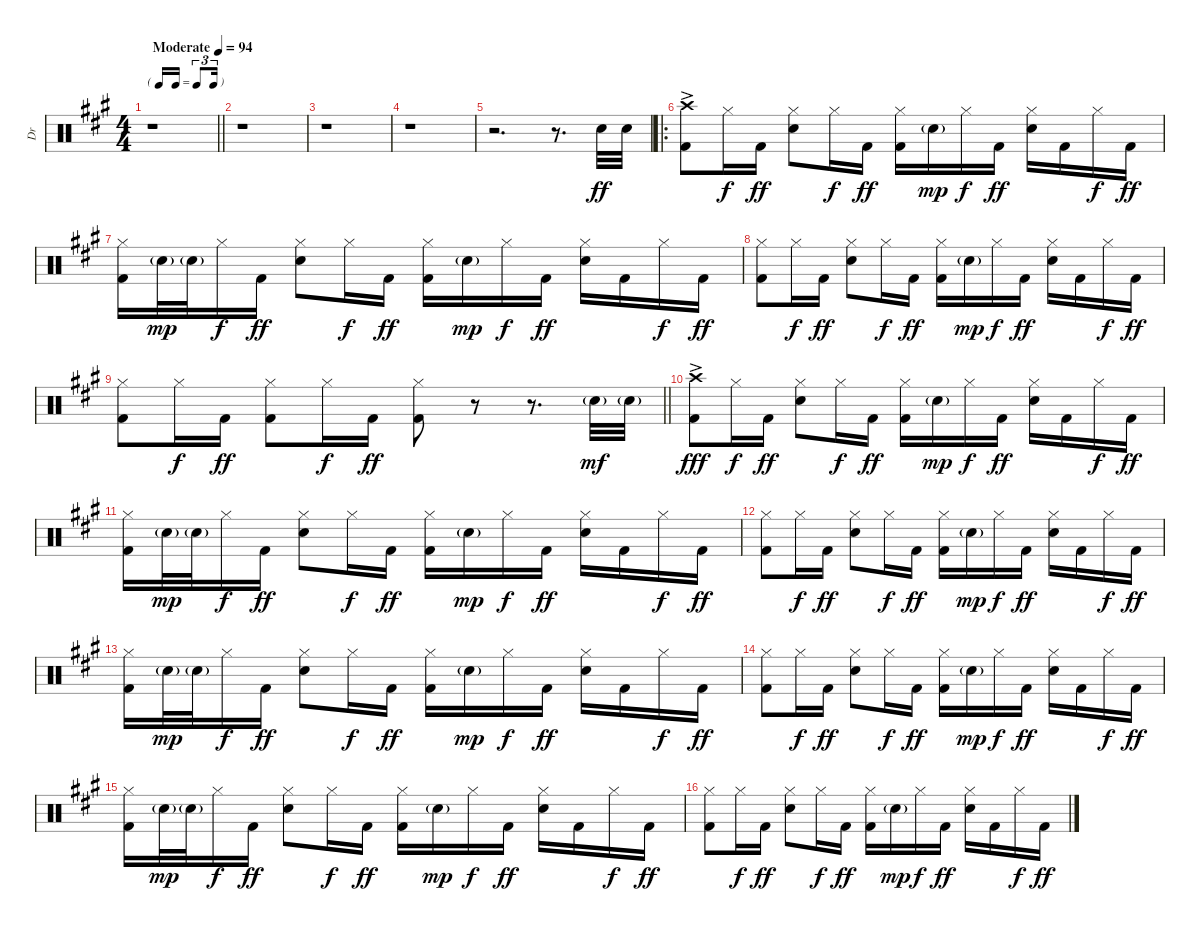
\track ("Dr" "Dr") {instrument percussion}
\staff {score}
\articulation defaults
\ts (4 4)
\tf triplet16th
\tempo (94 "Moderate")
\clef neutral
\barLineRight lightlight
\ks a
r.1{dy ff volume 16} |
r.1 |
r.1 |
r.1 |
r.2{d} r.8{d} "Electric Snare (hit)".32 "Electric Snare (hit)".32 |
\ro
("Crash high (hit)"{ac} "Kick (hit) 2"{ac}).8 "Hi-Hat (closed)".16{dy f} "Kick (hit) 2".16{dy ff} ("Hi-Hat (closed)" "Electric Snare (hit)").8 "Hi-Hat (closed)".16{dy f} "Kick (hit) 2".16{dy ff} ("Hi-Hat (closed)" "Kick (hit) 2").16 "Electric Snare (hit)"{g}.16{dy mp} "Hi-Hat (closed)".16{dy f} "Kick (hit) 2".16{dy ff} ("Hi-Hat (closed)" "Electric Snare (hit)").16 "Kick (hit) 2".16 "Hi-Hat (closed)".16{dy f} "Kick (hit) 2".16{dy ff} |
("Hi-Hat (closed)" "Kick (hit) 2").16 "Electric Snare (hit)"{g}.32{dy mp} "Electric Snare (hit)"{g}.32 "Hi-Hat (closed)".16{dy f} "Kick (hit) 2".16{dy ff} ("Hi-Hat (closed)" "Electric Snare (hit)").8 "Hi-Hat (closed)".16{dy f} "Kick (hit) 2".16{dy ff} ("Hi-Hat (closed)" "Kick (hit) 2").16 "Electric Snare (hit)"{g}.16{dy mp} "Hi-Hat (closed)".16{dy f} "Kick (hit) 2".16{dy ff} ("Hi-Hat (closed)" "Electric Snare (hit)").16 "Kick (hit) 2".16 "Hi-Hat (closed)".16{dy f} "Kick (hit) 2".16{dy ff} |
("Hi-Hat (closed)" "Kick (hit) 2").8 "Hi-Hat (closed)".16{dy f} "Kick (hit) 2".16{dy ff} ("Hi-Hat (closed)" "Electric Snare (hit)").8 "Hi-Hat (closed)".16{dy f} "Kick (hit) 2".16{dy ff} ("Hi-Hat (closed)" "Kick (hit) 2").16 "Electric Snare (hit)"{g}.16{dy mp} "Hi-Hat (closed)".16{dy f} "Kick (hit) 2".16{dy ff} ("Hi-Hat (closed)" "Electric Snare (hit)").16 "Kick (hit) 2".16 "Hi-Hat (closed)".16{dy f} "Kick (hit) 2".16{dy ff} |
\barLineRight lightlight
("Hi-Hat (closed)" "Kick (hit) 2").8 "Hi-Hat (closed)".16{dy f} "Kick (hit) 2".16{dy ff} ("Hi-Hat (closed)" "Kick (hit) 2").8 "Hi-Hat (closed)".16{dy f} "Kick (hit) 2".16{dy ff} ("Hi-Hat (closed)" "Kick (hit) 2").8 r.8 r.8{d} "Electric Snare (hit)"{g}.32{dy mf} "Electric Snare (hit)"{g}.32 |
("Crash high (hit)"{ac} "Kick (hit) 2"{ac}).8{dy fff} "Hi-Hat (closed)".16{dy f} "Kick (hit) 2".16{dy ff} ("Hi-Hat (closed)" "Electric Snare (hit)").8 "Hi-Hat (closed)".16{dy f} "Kick (hit) 2".16{dy ff} ("Hi-Hat (closed)" "Kick (hit) 2").16 "Electric Snare (hit)"{g}.16{dy mp} "Hi-Hat (closed)".16{dy f} "Kick (hit) 2".16{dy ff} ("Hi-Hat (closed)" "Electric Snare (hit)").16 "Kick (hit) 2".16 "Hi-Hat (closed)".16{dy f} "Kick (hit) 2".16{dy ff} |
("Hi-Hat (closed)" "Kick (hit) 2").16 "Electric Snare (hit)"{g}.32{dy mp} "Electric Snare (hit)"{g}.32 "Hi-Hat (closed)".16{dy f} "Kick (hit) 2".16{dy ff} ("Hi-Hat (closed)" "Electric Snare (hit)").8 "Hi-Hat (closed)".16{dy f} "Kick (hit) 2".16{dy ff} ("Hi-Hat (closed)" "Kick (hit) 2").16 "Electric Snare (hit)"{g}.16{dy mp} "Hi-Hat (closed)".16{dy f} "Kick (hit) 2".16{dy ff} ("Hi-Hat (closed)" "Electric Snare (hit)").16 "Kick (hit) 2".16 "Hi-Hat (closed)".16{dy f} "Kick (hit) 2".16{dy ff} |
("Hi-Hat (closed)" "Kick (hit) 2").8 "Hi-Hat (closed)".16{dy f} "Kick (hit) 2".16{dy ff} ("Hi-Hat (closed)" "Electric Snare (hit)").8 "Hi-Hat (closed)".16{dy f} "Kick (hit) 2".16{dy ff} ("Hi-Hat (closed)" "Kick (hit) 2").16 "Electric Snare (hit)"{g}.16{dy mp} "Hi-Hat (closed)".16{dy f} "Kick (hit) 2".16{dy ff} ("Hi-Hat (closed)" "Electric Snare (hit)").16 "Kick (hit) 2".16 "Hi-Hat (closed)".16{dy f} "Kick (hit) 2".16{dy ff} |
("Hi-Hat (closed)" "Kick (hit) 2").16 "Electric Snare (hit)"{g}.32{dy mp} "Electric Snare (hit)"{g}.32 "Hi-Hat (closed)".16{dy f} "Kick (hit) 2".16{dy ff} ("Hi-Hat (closed)" "Electric Snare (hit)").8 "Hi-Hat (closed)".16{dy f} "Kick (hit) 2".16{dy ff} ("Hi-Hat (closed)" "Kick (hit) 2").16 "Electric Snare (hit)"{g}.16{dy mp} "Hi-Hat (closed)".16{dy f} "Kick (hit) 2".16{dy ff} ("Hi-Hat (closed)" "Electric Snare (hit)").16 "Kick (hit) 2".16 "Hi-Hat (closed)".16{dy f} "Kick (hit) 2".16{dy ff} |
("Hi-Hat (closed)" "Kick (hit) 2").8 "Hi-Hat (closed)".16{dy f} "Kick (hit) 2".16{dy ff} ("Hi-Hat (closed)" "Electric Snare (hit)").8 "Hi-Hat (closed)".16{dy f} "Kick (hit) 2".16{dy ff} ("Hi-Hat (closed)" "Kick (hit) 2").16 "Electric Snare (hit)"{g}.16{dy mp} "Hi-Hat (closed)".16{dy f} "Kick (hit) 2".16{dy ff} ("Hi-Hat (closed)" "Electric Snare (hit)").16 "Kick (hit) 2".16 "Hi-Hat (closed)".16{dy f} "Kick (hit) 2".16{dy ff} |
("Hi-Hat (closed)" "Kick (hit) 2").16 "Electric Snare (hit)"{g}.32{dy mp} "Electric Snare (hit)"{g}.32 "Hi-Hat (closed)".16{dy f} "Kick (hit) 2".16{dy ff} ("Hi-Hat (closed)" "Electric Snare (hit)").8 "Hi-Hat (closed)".16{dy f} "Kick (hit) 2".16{dy ff} ("Hi-Hat (closed)" "Kick (hit) 2").16 "Electric Snare (hit)"{g}.16{dy mp} "Hi-Hat (closed)".16{dy f} "Kick (hit) 2".16{dy ff} ("Hi-Hat (closed)" "Electric Snare (hit)").16 "Kick (hit) 2".16 "Hi-Hat (closed)".16{dy f} "Kick (hit) 2".16{dy ff} |
("Hi-Hat (closed)" "Kick (hit) 2").8 "Hi-Hat (closed)".16{dy f} "Kick (hit) 2".16{dy ff} ("Hi-Hat (closed)" "Electric Snare (hit)").8 "Hi-Hat (closed)".16{dy f} "Kick (hit) 2".16{dy ff} ("Hi-Hat (closed)" "Kick (hit) 2").16 "Electric Snare (hit)"{g}.16{dy mp} "Hi-Hat (closed)".16{dy f} "Kick (hit) 2".16{dy ff} ("Hi-Hat (closed)" "Electric Snare (hit)").16 "Kick (hit) 2".16 "Hi-Hat (closed)".16{dy f} "Kick (hit) 2".16{dy ff}
